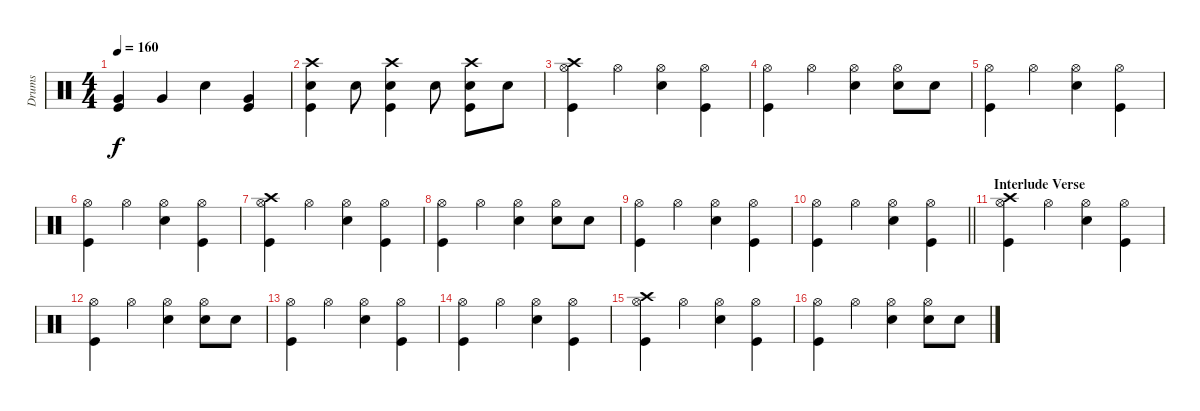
\track ("Drums" "Drums") {instrument percussion}
\staff {score}
\articulation defaults
\ts (4 4)
\tempo 160
\clef neutral
\ks c
("Very Low Tom (hit)" "Kick (hit)").4{dy f} "Very Low Tom (hit)".4 "Snare (hit) 2".4 ("Very Low Tom (hit)" "Kick (hit)").4 |
("Crash high (hit)" "Snare (hit) 2" "Kick (hit)").4 "Snare (hit) 2".8 ("Crash high (hit)" "Snare (hit) 2" "Kick (hit)").4 "Snare (hit) 2".8 ("Crash high (hit)" "Snare (hit) 2" "Kick (hit)").8 "Snare (hit) 2".8 |
("Crash high (hit)" "Hi-Hat (open)" "Kick (hit)").4 "Hi-Hat (open)".4 ("Hi-Hat (open)" "Snare (hit) 2").4 ("Hi-Hat (open)" "Kick (hit)").4 |
("Hi-Hat (open)" "Kick (hit)").4 "Hi-Hat (open)".4 ("Hi-Hat (open)" "Snare (hit) 2").4 ("Hi-Hat (open)" "Snare (hit) 2").8 "Snare (hit) 2".8 |
("Hi-Hat (open)" "Kick (hit)").4 "Hi-Hat (open)".4 ("Hi-Hat (open)" "Snare (hit) 2").4 ("Hi-Hat (open)" "Kick (hit)").4 |
("Hi-Hat (open)" "Kick (hit)").4 "Hi-Hat (open)".4 ("Hi-Hat (open)" "Snare (hit) 2").4 ("Hi-Hat (open)" "Kick (hit)").4 |
("Crash high (hit)" "Hi-Hat (open)" "Kick (hit)").4 "Hi-Hat (open)".4 ("Hi-Hat (open)" "Snare (hit) 2").4 ("Hi-Hat (open)" "Kick (hit)").4 |
("Hi-Hat (open)" "Kick (hit)").4 "Hi-Hat (open)".4 ("Hi-Hat (open)" "Snare (hit) 2").4 ("Hi-Hat (open)" "Snare (hit) 2").8 "Snare (hit) 2".8 |
("Hi-Hat (open)" "Kick (hit)").4 "Hi-Hat (open)".4 ("Hi-Hat (open)" "Snare (hit) 2").4 ("Hi-Hat (open)" "Kick (hit)").4 |
\barLineRight lightlight
("Hi-Hat (open)" "Kick (hit)").4 "Hi-Hat (open)".4 ("Hi-Hat (open)" "Snare (hit) 2").4 ("Hi-Hat (open)" "Kick (hit)").4 |
\section ("" "Interlude Verse")
("Crash high (hit)" "Hi-Hat (open)" "Kick (hit)").4 "Hi-Hat (open)".4 ("Hi-Hat (open)" "Snare (hit) 2").4 ("Hi-Hat (open)" "Kick (hit)").4 |
("Hi-Hat (open)" "Kick (hit)").4 "Hi-Hat (open)".4 ("Hi-Hat (open)" "Snare (hit) 2").4 ("Hi-Hat (open)" "Snare (hit) 2").8 "Snare (hit) 2".8 |
("Hi-Hat (open)" "Kick (hit)").4 "Hi-Hat (open)".4 ("Hi-Hat (open)" "Snare (hit) 2").4 ("Hi-Hat (open)" "Kick (hit)").4 |
("Hi-Hat (open)" "Kick (hit)").4 "Hi-Hat (open)".4 ("Hi-Hat (open)" "Snare (hit) 2").4 ("Hi-Hat (open)" "Kick (hit)").4 |
("Crash high (hit)" "Hi-Hat (open)" "Kick (hit)").4 "Hi-Hat (open)".4 ("Hi-Hat (open)" "Snare (hit) 2").4 ("Hi-Hat (open)" "Kick (hit)").4 |
("Hi-Hat (open)" "Kick (hit)").4 "Hi-Hat (open)".4 ("Hi-Hat (open)" "Snare (hit) 2").4 ("Hi-Hat (open)" "Snare (hit) 2").8 "Snare (hit) 2".8
